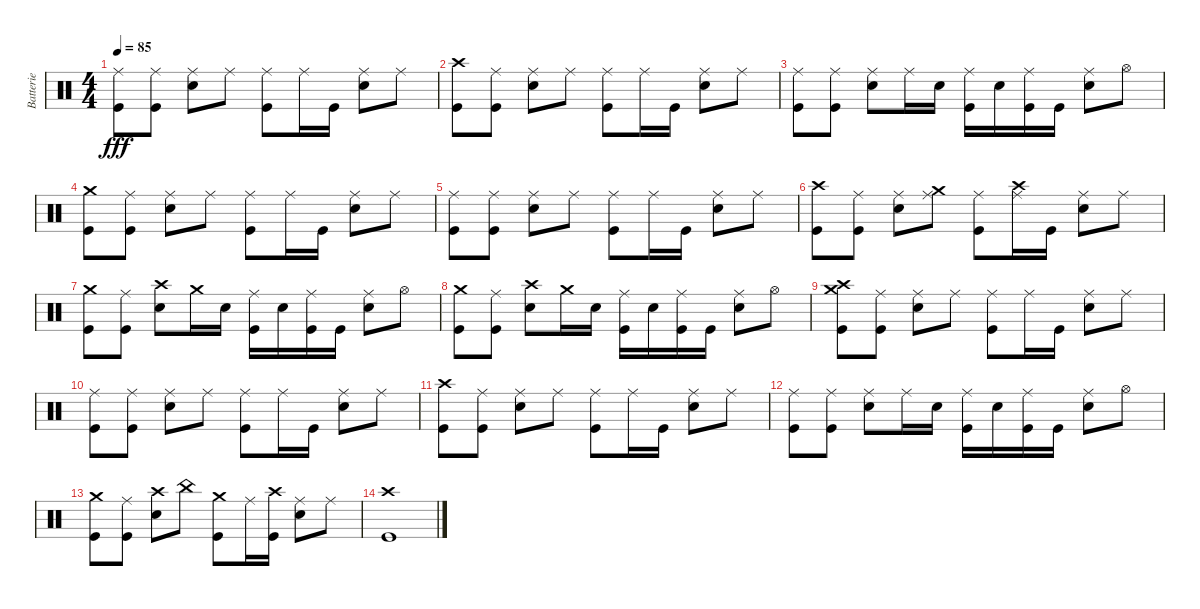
\track ("Batterie" "Batterie") {instrument percussion}
\staff {score}
\articulation defaults
\ts (4 4)
\tempo 85
\clef neutral
\ks c
("Ride (middle)" "Kick (hit)").8{dy fff} ("Ride (middle)" "Kick (hit)").8 ("Ride (middle)" "Electric Snare (hit)").8 "Ride (middle)".8 ("Ride (middle)" "Kick (hit)").8 "Ride (middle)".16 "Kick (hit)".16 ("Ride (middle)" "Electric Snare (hit)").8 "Ride (middle)".8 |
("Crash high (hit)" "Kick (hit)").8 ("Ride (middle)" "Kick (hit)").8 ("Ride (middle)" "Electric Snare (hit)").8 "Ride (middle)".8 ("Ride (middle)" "Kick (hit)").8 "Ride (middle)".16 "Kick (hit)".16 ("Ride (middle)" "Electric Snare (hit)").8 "Ride (middle)".8 |
("Ride (middle)" "Kick (hit)").8 ("Ride (middle)" "Kick (hit)").8 ("Ride (middle)" "Electric Snare (hit)").8 "Ride (middle)".16 "Electric Snare (hit)".16 ("Ride (middle)" "Kick (hit)").16 "Electric Snare (hit)".16 ("Ride (middle)" "Kick (hit)").16 "Kick (hit)".16 ("Ride (middle)" "Electric Snare (hit)").8 "Hi-Hat (open)".8 |
("Crash medium (hit)" "Kick (hit)").8 ("Ride (middle)" "Kick (hit)").8 ("Ride (middle)" "Electric Snare (hit)").8 "Ride (middle)".8 ("Ride (middle)" "Kick (hit)").8 "Ride (middle)".16 "Kick (hit)".16 ("Ride (middle)" "Electric Snare (hit)").8 "Ride (middle)".8 |
("Ride (middle)" "Kick (hit)").8 ("Ride (middle)" "Kick (hit)").8 ("Ride (middle)" "Electric Snare (hit)").8 "Ride (middle)".8 ("Ride (middle)" "Kick (hit)").8 "Ride (middle)".16 "Kick (hit)".16 ("Ride (middle)" "Electric Snare (hit)").8 "Ride (middle)".8 |
("Crash high (hit)" "Kick (hit)").8 ("Ride (middle)" "Kick (hit)").8 ("Ride (middle)" "Electric Snare (hit)").8 ("Ride (middle)" "Crash medium (hit)").8 ("Ride (middle)" "Kick (hit)").8 ("Ride (middle)" "Crash high (hit)").16 "Kick (hit)".16 ("Ride (middle)" "Electric Snare (hit)").8 "Ride (middle)".8 |
("Crash medium (hit)" "Kick (hit)").8 ("Ride (middle)" "Kick (hit)").8 ("Crash high (hit)" "Electric Snare (hit)").8 "Crash medium (hit)".16 "Electric Snare (hit)".16 ("Ride (middle)" "Kick (hit)").16 "Electric Snare (hit)".16 ("Ride (middle)" "Kick (hit)").16 "Kick (hit)".16 ("Ride (middle)" "Electric Snare (hit)").8 "Hi-Hat (open)".8 |
("Crash medium (hit)" "Kick (hit)").8 ("Ride (middle)" "Kick (hit)").8 ("Crash high (hit)" "Electric Snare (hit)").8 "Crash medium (hit)".16 "Electric Snare (hit)".16 ("Ride (middle)" "Kick (hit)").16 "Electric Snare (hit)".16 ("Ride (middle)" "Kick (hit)").16 "Kick (hit)".16 ("Ride (middle)" "Electric Snare (hit)").8 "Hi-Hat (open)".8 |
("Crash high (hit)" "Kick (hit)" "Crash medium (hit)").8 ("Ride (middle)" "Kick (hit)").8 ("Ride (middle)" "Electric Snare (hit)").8 "Ride (middle)".8 ("Ride (middle)" "Kick (hit)").8 "Ride (middle)".16 "Kick (hit)".16 ("Ride (middle)" "Electric Snare (hit)").8 "Ride (middle)".8 |
("Ride (middle)" "Kick (hit)").8 ("Ride (middle)" "Kick (hit)").8 ("Ride (middle)" "Electric Snare (hit)").8 "Ride (middle)".8 ("Ride (middle)" "Kick (hit)").8 "Ride (middle)".16 "Kick (hit)".16 ("Ride (middle)" "Electric Snare (hit)").8 "Ride (middle)".8 |
("Crash high (hit)" "Kick (hit)").8 ("Ride (middle)" "Kick (hit)").8 ("Ride (middle)" "Electric Snare (hit)").8 "Ride (middle)".8 ("Ride (middle)" "Kick (hit)").8 "Ride (middle)".16 "Kick (hit)".16 ("Ride (middle)" "Electric Snare (hit)").8 "Ride (middle)".8 |
("Ride (middle)" "Kick (hit)").8 ("Ride (middle)" "Kick (hit)").8 ("Ride (middle)" "Electric Snare (hit)").8 "Ride (middle)".16 "Electric Snare (hit)".16 ("Ride (middle)" "Kick (hit)").16 "Electric Snare (hit)".16 ("Ride (middle)" "Kick (hit)").16 "Kick (hit)".16 ("Ride (middle)" "Electric Snare (hit)").8 "Hi-Hat (open)".8 |
("Crash medium (hit)" "Kick (hit)").8 ("Ride (middle)" "Kick (hit)").8 ("Crash high (hit)" "Electric Snare (hit)").8 "China (hit)".8 ("Crash medium (hit)" "Kick (hit)").8 "Ride (middle)".16 ("Crash high (hit)" "Kick (hit)").16 ("Ride (middle)" "Electric Snare (hit)").8 "Ride (middle)".8 |
("Crash high (hit)" "Kick (hit)").1
